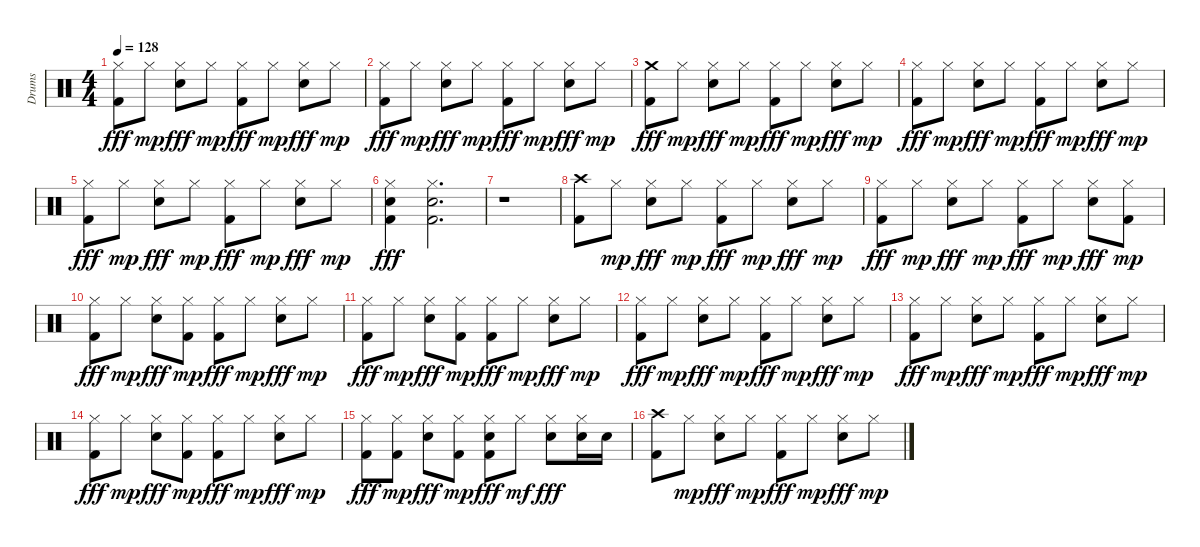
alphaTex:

\track ("Drums" "Drums") {instrument percussion}
\staff {score}
\articulation defaults
\ts (4 4)
\tempo 128
\clef neutral
\ks c
("Hi-Hat (closed)" "Kick (hit) 2").8{dy fff} "Hi-Hat (closed)".8{dy mp} ("Hi-Hat (closed)" "Snare (hit) 2").8{dy fff} "Hi-Hat (closed)".8{dy mp} ("Hi-Hat (closed)" "Kick (hit) 2").8{dy fff} "Hi-Hat (closed)".8{dy mp} ("Hi-Hat (closed)" "Snare (hit) 2").8{dy fff} "Hi-Hat (closed)".8{dy mp} |
("Hi-Hat (closed)" "Kick (hit) 2").8{dy fff} "Hi-Hat (closed)".8{dy mp} ("Hi-Hat (closed)" "Snare (hit) 2").8{dy fff} "Hi-Hat (closed)".8{dy mp} ("Hi-Hat (closed)" "Kick (hit) 2").8{dy fff} "Hi-Hat (closed)".8{dy mp} ("Hi-Hat (closed)" "Snare (hit) 2").8{dy fff} "Hi-Hat (closed)".8{dy mp} |
("Crash medium (hit)" "Kick (hit) 2").8{dy fff} "Hi-Hat (closed)".8{dy mp} ("Hi-Hat (closed)" "Snare (hit) 2").8{dy fff} "Hi-Hat (closed)".8{dy mp} ("Hi-Hat (closed)" "Kick (hit) 2").8{dy fff} "Hi-Hat (closed)".8{dy mp} ("Hi-Hat (closed)" "Snare (hit) 2").8{dy fff} "Hi-Hat (closed)".8{dy mp} |
("Hi-Hat (closed)" "Kick (hit) 2").8{dy fff} "Hi-Hat (closed)".8{dy mp} ("Hi-Hat (closed)" "Snare (hit) 2").8{dy fff} "Hi-Hat (closed)".8{dy mp} ("Hi-Hat (closed)" "Kick (hit) 2").8{dy fff} "Hi-Hat (closed)".8{dy mp} ("Hi-Hat (closed)" "Snare (hit) 2").8{dy fff} "Hi-Hat (closed)".8{dy mp} |
("Hi-Hat (closed)" "Kick (hit) 2").8{dy fff} "Hi-Hat (closed)".8{dy mp} ("Hi-Hat (closed)" "Snare (hit) 2").8{dy fff} "Hi-Hat (closed)".8{dy mp} ("Hi-Hat (closed)" "Kick (hit) 2").8{dy fff} "Hi-Hat (closed)".8{dy mp} ("Hi-Hat (closed)" "Snare (hit) 2").8{dy fff} "Hi-Hat (closed)".8{dy mp} |
("Hi-Hat (closed)" "Snare (hit) 2" "Kick (hit) 2").4{dy fff} ("Hi-Hat (closed)" "Snare (hit) 2" "Kick (hit) 2").2{d} |
r.1 |
("Crash high (hit)" "Kick (hit) 2").8 "Hi-Hat (closed)".8{dy mp} ("Hi-Hat (closed)" "Snare (hit) 2").8{dy fff} "Hi-Hat (closed)".8{dy mp} ("Hi-Hat (closed)" "Kick (hit) 2").8{dy fff} "Hi-Hat (closed)".8{dy mp} ("Hi-Hat (closed)" "Snare (hit) 2").8{dy fff} "Hi-Hat (closed)".8{dy mp} |
("Hi-Hat (closed)" "Kick (hit) 2").8{dy fff} "Hi-Hat (closed)".8{dy mp} ("Hi-Hat (closed)" "Snare (hit) 2").8{dy fff} "Hi-Hat (closed)".8{dy mp} ("Hi-Hat (closed)" "Kick (hit) 2").8{dy fff} "Hi-Hat (closed)".8{dy mp} ("Hi-Hat (closed)" "Snare (hit) 2").8{dy fff} ("Kick (hit) 2" "Hi-Hat (closed)").8{dy mp} |
("Hi-Hat (closed)" "Kick (hit) 2").8{dy fff} "Hi-Hat (closed)".8{dy mp} ("Hi-Hat (closed)" "Snare (hit) 2").8{dy fff} ("Kick (hit) 2" "Hi-Hat (closed)").8{dy mp} ("Hi-Hat (closed)" "Kick (hit) 2").8{dy fff} "Hi-Hat (closed)".8{dy mp} ("Hi-Hat (closed)" "Snare (hit) 2").8{dy fff} "Hi-Hat (closed)".8{dy mp} |
("Hi-Hat (closed)" "Kick (hit) 2").8{dy fff} "Hi-Hat (closed)".8{dy mp} ("Hi-Hat (closed)" "Snare (hit) 2").8{dy fff} ("Kick (hit) 2" "Hi-Hat (closed)").8{dy mp} ("Hi-Hat (closed)" "Kick (hit) 2").8{dy fff} "Hi-Hat (closed)".8{dy mp} ("Hi-Hat (closed)" "Snare (hit) 2").8{dy fff} "Hi-Hat (closed)".8{dy mp} |
("Hi-Hat (closed)" "Kick (hit) 2").8{dy fff} "Hi-Hat (closed)".8{dy mp} ("Hi-Hat (closed)" "Snare (hit) 2").8{dy fff} "Hi-Hat (closed)".8{dy mp} ("Hi-Hat (closed)" "Kick (hit) 2").8{dy fff} "Hi-Hat (closed)".8{dy mp} ("Hi-Hat (closed)" "Snare (hit) 2").8{dy fff} "Hi-Hat (closed)".8{dy mp} |
("Hi-Hat (closed)" "Kick (hit) 2").8{dy fff} "Hi-Hat (closed)".8{dy mp} ("Hi-Hat (closed)" "Snare (hit) 2").8{dy fff} "Hi-Hat (closed)".8{dy mp} ("Hi-Hat (closed)" "Kick (hit) 2").8{dy fff} "Hi-Hat (closed)".8{dy mp} ("Hi-Hat (closed)" "Snare (hit) 2").8{dy fff} "Hi-Hat (closed)".8{dy mp} |
("Hi-Hat (closed)" "Kick (hit) 2").8{dy fff} "Hi-Hat (closed)".8{dy mp} ("Hi-Hat (closed)" "Snare (hit) 2").8{dy fff} ("Kick (hit) 2" "Hi-Hat (closed)").8{dy mp} ("Hi-Hat (closed)" "Kick (hit) 2").8{dy fff} "Hi-Hat (closed)".8{dy mp} ("Hi-Hat (closed)" "Snare (hit) 2").8{dy fff} "Hi-Hat (closed)".8{dy mp} |
("Hi-Hat (closed)" "Kick (hit) 2").8{dy fff} ("Kick (hit) 2" "Hi-Hat (closed)").8{dy mp} ("Hi-Hat (closed)" "Snare (hit) 2").8{dy fff} ("Kick (hit) 2" "Hi-Hat (closed)").8{dy mp} ("Hi-Hat (closed)" "Snare (hit) 2" "Kick (hit) 2").8{dy fff} "Hi-Hat (closed)".8{dy mf} ("Hi-Hat (closed)" "Snare (hit) 2").8{dy fff} ("Hi-Hat (closed)" "Snare (hit) 2").16 "Snare (hit) 2".16 |
("Crash high (hit)" "Kick (hit) 2").8 "Hi-Hat (closed)".8{dy mp} ("Hi-Hat (closed)" "Snare (hit) 2").8{dy fff} "Hi-Hat (closed)".8{dy mp} ("Hi-Hat (closed)" "Kick (hit) 2").8{dy fff} "Hi-Hat (closed)".8{dy mp} ("Hi-Hat (closed)" "Snare (hit) 2").8{dy fff} "Hi-Hat (closed)".8{dy mp}
